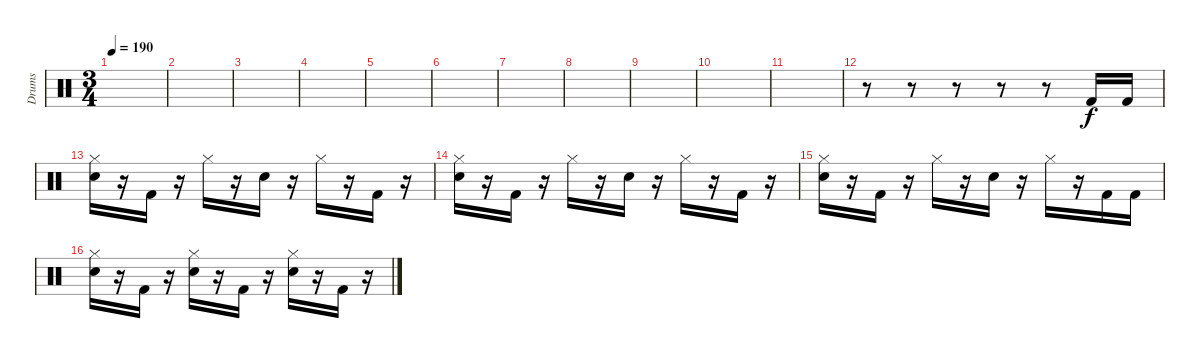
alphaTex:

\track ("Drums" "Drums") {instrument percussion}
\staff {score}
\articulation defaults
\ts (3 4)
\tempo 190
\clef neutral
\ks c
|
|
|
|
|
|
|
|
|
|
|
r.8 r.8 r.8 r.8 r.8 "Kick (hit) 2".16 "Kick (hit) 2".16 |
("Hi-Hat (closed)" "Snare (hit) 2").16 r.16 "Kick (hit) 2".16 r.16 "Hi-Hat (closed)".16 r.16 "Snare (hit) 2".16 r.16 "Hi-Hat (closed)".16 r.16 "Kick (hit) 2".16 r.16 |
("Hi-Hat (closed)" "Snare (hit) 2").16 r.16 "Kick (hit) 2".16 r.16 "Hi-Hat (closed)".16 r.16 "Snare (hit) 2".16 r.16 "Hi-Hat (closed)".16 r.16 "Kick (hit) 2".16 r.16 |
("Hi-Hat (closed)" "Snare (hit) 2").16 r.16 "Kick (hit) 2".16 r.16 "Hi-Hat (closed)".16 r.16 "Snare (hit) 2".16 r.16 "Hi-Hat (closed)".16 r.16 "Kick (hit) 2".16 "Kick (hit) 2".16 |
("Hi-Hat (closed)" "Snare (hit) 2").16 r.16 "Kick (hit) 2".16 r.16 ("Hi-Hat (closed)" "Snare (hit) 2").16 r.16 "Kick (hit) 2".16 r.16 ("Hi-Hat (closed)" "Snare (hit) 2").16 r.16 "Kick (hit) 2".16 r.16
